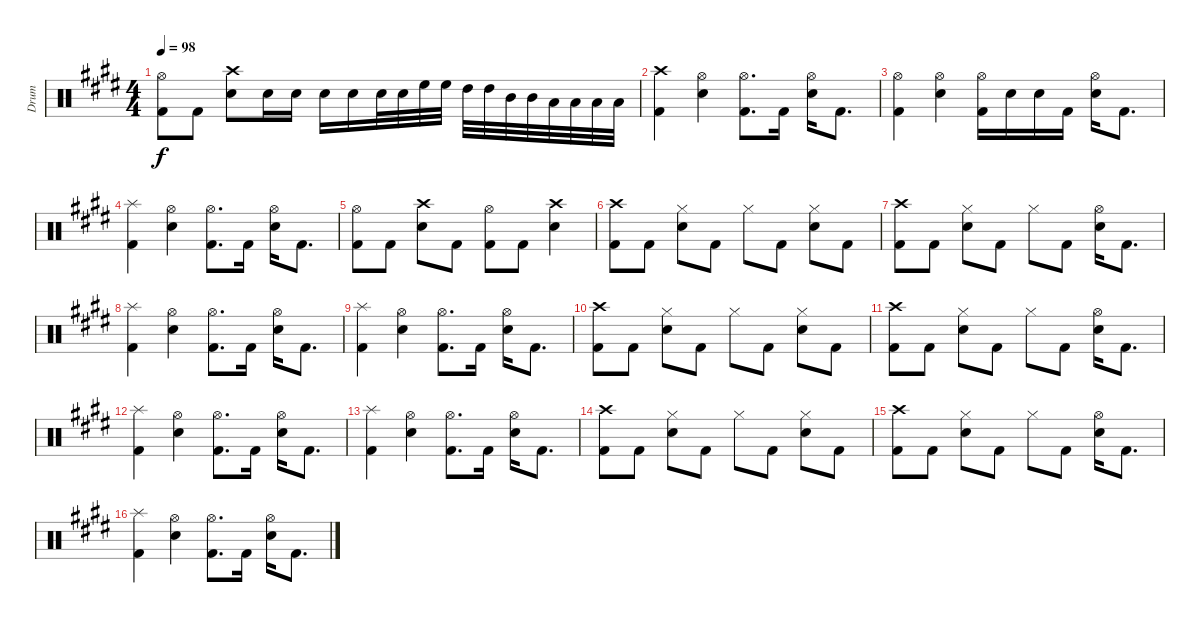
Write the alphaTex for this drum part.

\track ("Drum" "Drum") {instrument percussion}
\staff {score}
\articulation defaults
\ts (4 4)
\tempo 98
\clef neutral
\ks c#minor
("Kick (hit) 2" "Hi-Hat (open)").8{dy f} "Kick (hit) 2".8 ("Snare (hit) 2" "Crash high (hit)").8 "Snare (hit) 2".16 "Snare (hit) 2".16 "Snare (hit) 2".16 "Snare (hit) 2".16 "Snare (hit) 2".32 "Snare (hit) 2".32 "High Floor Tom (hit)".32 "High Floor Tom (hit)".32 "High Tom (hit)".32 "High Tom (hit)".32 "Mid Tom (hit)".32 "Mid Tom (hit)".32 "Low Tom (hit)".32 "Low Tom (hit)".32 "Low Tom (hit)".32 "Low Tom (hit)".32 |
("Kick (hit) 2" "Crash high (hit)").4 ("Snare (hit) 2" "Hi-Hat (open)").4 ("Kick (hit) 2" "Hi-Hat (open)").8{d} "Kick (hit) 2".16 ("Snare (hit) 2" "Hi-Hat (open)").16 "Kick (hit) 2".8{d} |
("Kick (hit) 2" "Hi-Hat (open)").4 ("Snare (hit) 2" "Hi-Hat (open)").4 ("Kick (hit) 2" "Hi-Hat (open)").16 "Snare (hit) 2".16 "Snare (hit) 2".16 "Kick (hit) 2".16 ("Snare (hit) 2" "Hi-Hat (open)").16 "Kick (hit) 2".8{d} |
("Kick (hit) 2" "Splash (hit)").4 ("Snare (hit) 2" "Hi-Hat (open)").4 ("Kick (hit) 2" "Hi-Hat (open)").8{d} "Kick (hit) 2".16 ("Snare (hit) 2" "Hi-Hat (open)").16 "Kick (hit) 2".8{d} |
("Kick (hit) 2" "Hi-Hat (open)").8 "Kick (hit) 2".8 ("Snare (hit) 2" "Crash high (hit)").8 "Kick (hit) 2".8 ("Kick (hit) 2" "Hi-Hat (open)").8 "Kick (hit) 2".8 ("Snare (hit) 2" "Crash high (hit)").4 |
("Kick (hit) 2" "Crash high (hit)").8 "Kick (hit) 2".8 ("Snare (hit) 2" "Hi-Hat (closed)").8 "Kick (hit) 2".8 "Hi-Hat (closed)".8 "Kick (hit) 2".8 ("Snare (hit) 2" "Hi-Hat (closed)").8 "Kick (hit) 2".8 |
\ks e
("Kick (hit) 2" "Crash high (hit)").8 "Kick (hit) 2".8 ("Snare (hit) 2" "Hi-Hat (closed)").8 "Kick (hit) 2".8 "Hi-Hat (closed)".8 "Kick (hit) 2".8 ("Snare (hit) 2" "Hi-Hat (open)").16 "Kick (hit) 2".8{d} |
\ks c#minor
("Kick (hit) 2" "Splash (hit)").4 ("Snare (hit) 2" "Hi-Hat (open)").4 ("Kick (hit) 2" "Hi-Hat (open)").8{d} "Kick (hit) 2".16 ("Snare (hit) 2" "Hi-Hat (open)").16 "Kick (hit) 2".8{d} |
("Kick (hit) 2" "Splash (hit)").4 ("Snare (hit) 2" "Hi-Hat (open)").4 ("Kick (hit) 2" "Hi-Hat (open)").8{d} "Kick (hit) 2".16 ("Snare (hit) 2" "Hi-Hat (open)").16 "Kick (hit) 2".8{d} |
("Kick (hit) 2" "Crash high (hit)").8 "Kick (hit) 2".8 ("Snare (hit) 2" "Hi-Hat (closed)").8 "Kick (hit) 2".8 "Hi-Hat (closed)".8 "Kick (hit) 2".8 ("Snare (hit) 2" "Hi-Hat (closed)").8 "Kick (hit) 2".8 |
\ks e
("Kick (hit) 2" "Crash high (hit)").8 "Kick (hit) 2".8 ("Snare (hit) 2" "Hi-Hat (closed)").8 "Kick (hit) 2".8 "Hi-Hat (closed)".8 "Kick (hit) 2".8 ("Snare (hit) 2" "Hi-Hat (open)").16 "Kick (hit) 2".8{d} |
\ks c#minor
("Kick (hit) 2" "Splash (hit)").4 ("Snare (hit) 2" "Hi-Hat (open)").4 ("Kick (hit) 2" "Hi-Hat (open)").8{d} "Kick (hit) 2".16 ("Snare (hit) 2" "Hi-Hat (open)").16 "Kick (hit) 2".8{d} |
("Kick (hit) 2" "Splash (hit)").4 ("Snare (hit) 2" "Hi-Hat (open)").4 ("Kick (hit) 2" "Hi-Hat (open)").8{d} "Kick (hit) 2".16 ("Snare (hit) 2" "Hi-Hat (open)").16 "Kick (hit) 2".8{d} |
("Kick (hit) 2" "Crash high (hit)").8 "Kick (hit) 2".8 ("Snare (hit) 2" "Hi-Hat (closed)").8 "Kick (hit) 2".8 "Hi-Hat (closed)".8 "Kick (hit) 2".8 ("Snare (hit) 2" "Hi-Hat (closed)").8 "Kick (hit) 2".8 |
\ks e
("Kick (hit) 2" "Crash high (hit)").8 "Kick (hit) 2".8 ("Snare (hit) 2" "Hi-Hat (closed)").8 "Kick (hit) 2".8 "Hi-Hat (closed)".8 "Kick (hit) 2".8 ("Snare (hit) 2" "Hi-Hat (open)").16 "Kick (hit) 2".8{d} |
("Kick (hit) 2" "Splash (hit)").4 ("Snare (hit) 2" "Hi-Hat (open)").4 ("Kick (hit) 2" "Hi-Hat (open)").8{d} "Kick (hit) 2".16 ("Snare (hit) 2" "Hi-Hat (open)").16 "Kick (hit) 2".8{d}
